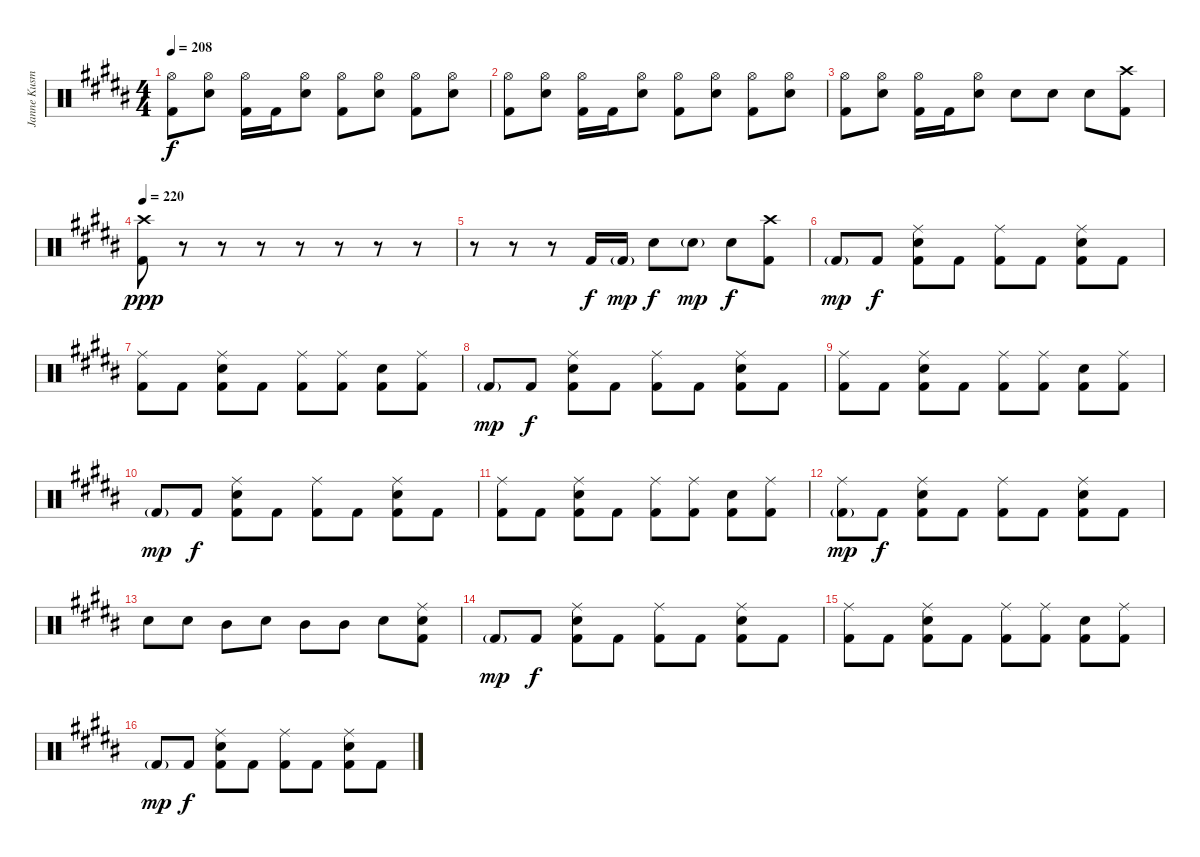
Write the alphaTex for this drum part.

\track ("Janne Kusmin" "Janne Kusm") {instrument percussion}
\staff {score}
\articulation defaults
\ts (4 4)
\tempo 208
\clef neutral
\ks b
("Hi-Hat (open)" "Kick (hit) 2").8{dy f} ("Hi-Hat (open)" "Electric Snare (hit)").8 ("Hi-Hat (open)" "Kick (hit) 2").16 "Kick (hit) 2".16 ("Hi-Hat (open)" "Electric Snare (hit)").8 ("Hi-Hat (open)" "Kick (hit) 2").8 ("Hi-Hat (open)" "Electric Snare (hit)").8 ("Hi-Hat (open)" "Kick (hit) 2").8 ("Hi-Hat (open)" "Electric Snare (hit)").8 |
("Hi-Hat (open)" "Kick (hit) 2").8 ("Hi-Hat (open)" "Electric Snare (hit)").8 ("Hi-Hat (open)" "Kick (hit) 2").16 "Kick (hit) 2".16 ("Hi-Hat (open)" "Electric Snare (hit)").8 ("Hi-Hat (open)" "Kick (hit) 2").8 ("Hi-Hat (open)" "Electric Snare (hit)").8 ("Hi-Hat (open)" "Kick (hit) 2").8 ("Hi-Hat (open)" "Electric Snare (hit)").8 |
("Hi-Hat (open)" "Kick (hit) 2").8 ("Hi-Hat (open)" "Electric Snare (hit)").8 ("Hi-Hat (open)" "Kick (hit) 2").16 "Kick (hit) 2".16 ("Hi-Hat (open)" "Electric Snare (hit)").8 "Electric Snare (hit)".8 "Electric Snare (hit)".8 "Electric Snare (hit)".8 ("Crash high (hit)" "Kick (hit) 2").8 |
\tempo 220
("Crash high (hit)" "Kick (hit) 2").8{dy ppp} r.8 r.8 r.8 r.8 r.8 r.8 r.8 |
\ks g#minor
r.8 r.8 r.8 "Kick (hit) 2".16{dy f} "Kick (hit) 2"{g}.16{dy mp} "Electric Snare (hit)".8{dy f} "Electric Snare (hit)"{g}.8{dy mp} "Electric Snare (hit)".8{dy f} ("Crash high (hit)" "Kick (hit) 2").8 |
"Kick (hit) 2"{g}.8{dy mp} "Kick (hit) 2".8{dy f} ("Ride (middle)" "Electric Snare (hit)" "Kick (hit) 2").8 "Kick (hit) 2".8 ("Ride (middle)" "Kick (hit) 2").8 "Kick (hit) 2".8 ("Ride (middle)" "Electric Snare (hit)" "Kick (hit) 2").8 "Kick (hit) 2".8 |
\ks b
("Ride (middle)" "Kick (hit) 2").8 "Kick (hit) 2".8 ("Ride (middle)" "Electric Snare (hit)" "Kick (hit) 2").8 "Kick (hit) 2".8 ("Ride (middle)" "Kick (hit) 2").8 ("Ride (middle)" "Kick (hit) 2").8 ("Electric Snare (hit)" "Kick (hit) 2").8 ("Ride (middle)" "Kick (hit) 2").8 |
\ks g#minor "Kick (hit) 2"{g}.8{dy mp} "Kick (hit) 2".8{dy f}
("Ride (middle)" "Electric Snare (hit)" "Kick (hit) 2").8 "Kick (hit) 2".8 ("Ride (middle)" "Kick (hit) 2").8 "Kick (hit) 2".8 ("Ride (middle)" "Electric Snare (hit)" "Kick (hit) 2").8 "Kick (hit) 2".8 |
\ks b
("Ride (middle)" "Kick (hit) 2").8 "Kick (hit) 2".8 ("Ride (middle)" "Electric Snare (hit)" "Kick (hit) 2").8 "Kick (hit) 2".8 ("Ride (middle)" "Kick (hit) 2").8 ("Ride (middle)" "Kick (hit) 2").8 ("Electric Snare (hit)" "Kick (hit) 2").8 ("Ride (middle)" "Kick (hit) 2").8 |
\ks g#minor "Kick (hit) 2"{g}.8{dy mp} "Kick (hit) 2".8{dy f}
("Ride (middle)" "Electric Snare (hit)" "Kick (hit) 2").8 "Kick (hit) 2".8 ("Ride (middle)" "Kick (hit) 2").8 "Kick (hit) 2".8 ("Ride (middle)" "Electric Snare (hit)" "Kick (hit) 2").8 "Kick (hit) 2".8 |
\ks b
("Ride (middle)" "Kick (hit) 2").8 "Kick (hit) 2".8 ("Ride (middle)" "Electric Snare (hit)" "Kick (hit) 2").8 "Kick (hit) 2".8 ("Ride (middle)" "Kick (hit) 2").8 ("Ride (middle)" "Kick (hit) 2").8 ("Electric Snare (hit)" "Kick (hit) 2").8 ("Ride (middle)" "Kick (hit) 2").8 |
\ks g#minor
("Ride (middle)" "Kick (hit) 2"{g}).8{dy mp} "Kick (hit) 2".8{dy f} ("Ride (middle)" "Electric Snare (hit)" "Kick (hit) 2").8 "Kick (hit) 2".8 ("Ride (middle)" "Kick (hit) 2").8 "Kick (hit) 2".8 ("Ride (middle)" "Electric Snare (hit)" "Kick (hit) 2").8 "Kick (hit) 2".8 |
\ks b "Electric Snare (hit)".8 "Electric Snare (hit)".8 "Mid Tom (hit)".8 "Electric Snare (hit)".8 "Mid Tom (hit)".8 "Mid Tom (hit)".8 "Electric Snare (hit)".8
("Ride (middle)" "Electric Snare (hit)" "Kick (hit) 2").8 |
\ks g#minor "Kick (hit) 2"{g}.8{dy mp} "Kick (hit) 2".8{dy f}
("Ride (middle)" "Electric Snare (hit)" "Kick (hit) 2").8 "Kick (hit) 2".8 ("Ride (middle)" "Kick (hit) 2").8 "Kick (hit) 2".8 ("Ride (middle)" "Electric Snare (hit)" "Kick (hit) 2").8 "Kick (hit) 2".8 |
\ks b
("Ride (middle)" "Kick (hit) 2").8 "Kick (hit) 2".8 ("Ride (middle)" "Electric Snare (hit)" "Kick (hit) 2").8 "Kick (hit) 2".8 ("Ride (middle)" "Kick (hit) 2").8 ("Ride (middle)" "Kick (hit) 2").8 ("Electric Snare (hit)" "Kick (hit) 2").8 ("Ride (middle)" "Kick (hit) 2").8 |
\ks g#minor "Kick (hit) 2"{g}.8{dy mp} "Kick (hit) 2".8{dy f}
("Ride (middle)" "Electric Snare (hit)" "Kick (hit) 2").8 "Kick (hit) 2".8 ("Ride (middle)" "Kick (hit) 2").8 "Kick (hit) 2".8 ("Ride (middle)" "Electric Snare (hit)" "Kick (hit) 2").8 "Kick (hit) 2".8
